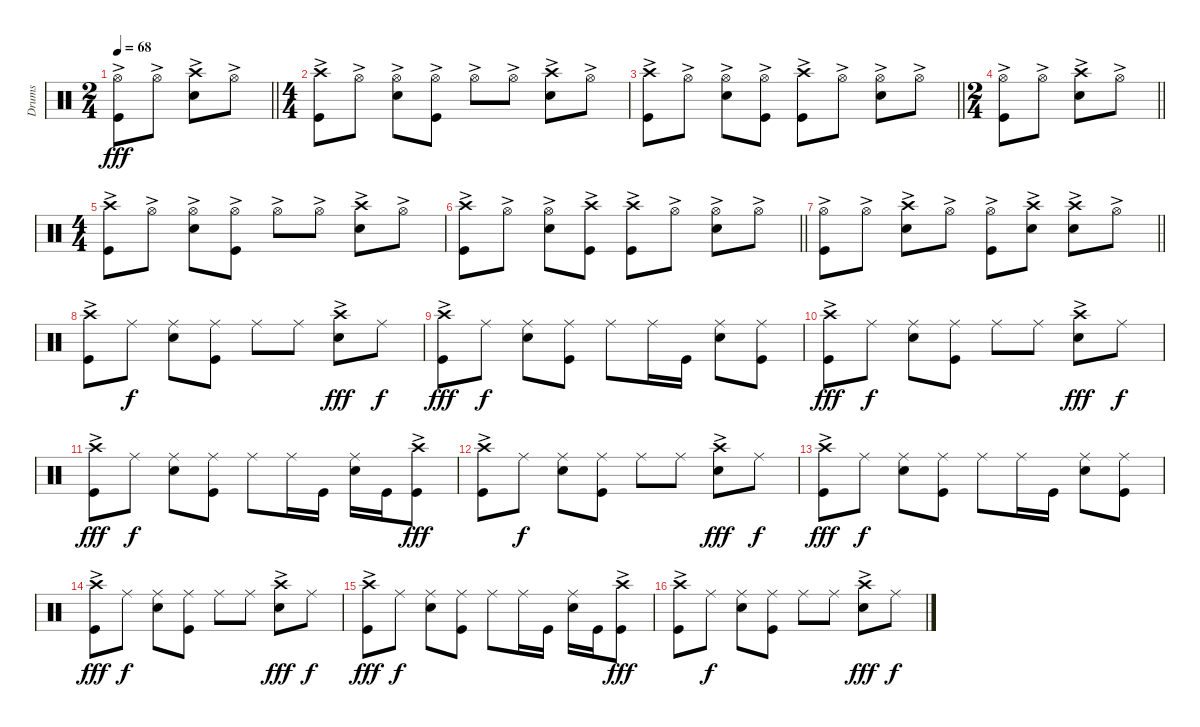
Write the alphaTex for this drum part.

\track ("Drums" "Drums") {instrument percussion}
\staff {score}
\articulation defaults
\ts (2 4)
\tempo 68
\clef neutral
\barLineRight lightlight
\ks c
("Hi-Hat (open)"{ac} "Kick (hit)").8{dy fff} "Hi-Hat (open)"{ac}.8 ("Crash high (hit)"{ac} "Snare (hit) 2").8 "Hi-Hat (open)"{ac}.8 |
\ts (4 4)
("Crash high (hit)"{ac} "Kick (hit)").8 "Hi-Hat (open)"{ac}.8 ("Hi-Hat (open)"{ac} "Snare (hit) 2").8 ("Hi-Hat (open)"{ac} "Kick (hit)").8 "Hi-Hat (open)"{ac}.8 "Hi-Hat (open)"{ac}.8 ("Crash high (hit)"{ac} "Snare (hit) 2").8 "Hi-Hat (open)"{ac}.8 |
\barLineRight lightlight
("Crash high (hit)"{ac} "Kick (hit)").8 "Hi-Hat (open)"{ac}.8 ("Hi-Hat (open)"{ac} "Snare (hit) 2").8 ("Hi-Hat (open)"{ac} "Kick (hit)").8 ("Crash high (hit)"{ac} "Kick (hit)").8 "Hi-Hat (open)"{ac}.8 ("Hi-Hat (open)"{ac} "Snare (hit) 2").8 "Hi-Hat (open)"{ac}.8 |
\ts (2 4)
\barLineRight lightlight
("Hi-Hat (open)"{ac} "Kick (hit)").8 "Hi-Hat (open)"{ac}.8 ("Crash high (hit)"{ac} "Snare (hit) 2").8 "Hi-Hat (open)"{ac}.8 |
\ts (4 4)
("Crash high (hit)"{ac} "Kick (hit)").8 "Hi-Hat (open)"{ac}.8 ("Hi-Hat (open)"{ac} "Snare (hit) 2").8 ("Hi-Hat (open)"{ac} "Kick (hit)").8 "Hi-Hat (open)"{ac}.8 "Hi-Hat (open)"{ac}.8 ("Crash high (hit)"{ac} "Snare (hit) 2").8 "Hi-Hat (open)"{ac}.8 |
\barLineRight lightlight
("Crash high (hit)"{ac} "Kick (hit)").8 "Hi-Hat (open)"{ac}.8 ("Hi-Hat (open)"{ac} "Snare (hit) 2").8 ("Crash high (hit)"{ac} "Kick (hit)").8 ("Crash high (hit)"{ac} "Kick (hit)").8 "Hi-Hat (open)"{ac}.8 ("Hi-Hat (open)"{ac} "Snare (hit) 2").8 "Hi-Hat (open)"{ac}.8 |
\barLineRight lightlight
("Hi-Hat (open)"{ac} "Kick (hit)").8 "Hi-Hat (open)"{ac}.8 ("Crash high (hit)"{ac} "Snare (hit) 2").8 "Hi-Hat (open)"{ac}.8 ("Hi-Hat (open)"{ac} "Kick (hit)").8 ("Crash high (hit)"{ac} "Snare (hit) 2").8 ("Crash high (hit)"{ac} "Snare (hit) 2").8 "Hi-Hat (open)"{ac}.8 |
("Crash high (hit)"{ac} "Kick (hit)").8 "Ride (middle)".8{dy f} ("Ride (middle)" "Snare (hit) 2").8 ("Ride (middle)" "Kick (hit)").8 "Ride (middle)".8 "Ride (middle)".8 ("Crash high (hit)"{ac} "Snare (hit) 2").8{dy fff} "Ride (middle)".8{dy f} |
("Crash high (hit)"{ac} "Kick (hit)").8{dy fff} "Ride (middle)".8{dy f} ("Ride (middle)" "Snare (hit) 2").8 ("Ride (middle)" "Kick (hit)").8 "Ride (middle)".8 "Ride (middle)".16 "Kick (hit)".16 ("Ride (middle)" "Snare (hit) 2").8 ("Ride (middle)" "Kick (hit)").8 |
("Crash high (hit)"{ac} "Kick (hit)").8{dy fff} "Ride (middle)".8{dy f} ("Ride (middle)" "Snare (hit) 2").8 ("Ride (middle)" "Kick (hit)").8 "Ride (middle)".8 "Ride (middle)".8 ("Crash high (hit)"{ac} "Snare (hit) 2").8{dy fff} "Ride (middle)".8{dy f} |
("Crash high (hit)"{ac} "Kick (hit)").8{dy fff} "Ride (middle)".8{dy f} ("Ride (middle)" "Snare (hit) 2").8 ("Ride (middle)" "Kick (hit)").8 "Ride (middle)".8 "Ride (middle)".16 "Kick (hit)".16 ("Ride (middle)" "Snare (hit) 2").16 "Kick (hit)".16 ("Crash high (hit)"{ac} "Kick (hit)").8{dy fff} |
("Crash high (hit)"{ac} "Kick (hit)").8 "Ride (middle)".8{dy f} ("Ride (middle)" "Snare (hit) 2").8 ("Ride (middle)" "Kick (hit)").8 "Ride (middle)".8 "Ride (middle)".8 ("Crash high (hit)"{ac} "Snare (hit) 2").8{dy fff} "Ride (middle)".8{dy f} |
("Crash high (hit)"{ac} "Kick (hit)").8{dy fff} "Ride (middle)".8{dy f} ("Ride (middle)" "Snare (hit) 2").8 ("Ride (middle)" "Kick (hit)").8 "Ride (middle)".8 "Ride (middle)".16 "Kick (hit)".16 ("Ride (middle)" "Snare (hit) 2").8 ("Ride (middle)" "Kick (hit)").8 |
("Crash high (hit)"{ac} "Kick (hit)").8{dy fff} "Ride (middle)".8{dy f} ("Ride (middle)" "Snare (hit) 2").8 ("Ride (middle)" "Kick (hit)").8 "Ride (middle)".8 "Ride (middle)".8 ("Crash high (hit)"{ac} "Snare (hit) 2").8{dy fff} "Ride (middle)".8{dy f} |
("Crash high (hit)"{ac} "Kick (hit)").8{dy fff} "Ride (middle)".8{dy f} ("Ride (middle)" "Snare (hit) 2").8 ("Ride (middle)" "Kick (hit)").8 "Ride (middle)".8 "Ride (middle)".16 "Kick (hit)".16 ("Ride (middle)" "Snare (hit) 2").16 "Kick (hit)".16 ("Crash high (hit)"{ac} "Kick (hit)").8{dy fff} |
("Crash high (hit)"{ac} "Kick (hit)").8 "Ride (middle)".8{dy f} ("Ride (middle)" "Snare (hit) 2").8 ("Ride (middle)" "Kick (hit)").8 "Ride (middle)".8 "Ride (middle)".8 ("Crash high (hit)"{ac} "Snare (hit) 2").8{dy fff} "Ride (middle)".8{dy f}
